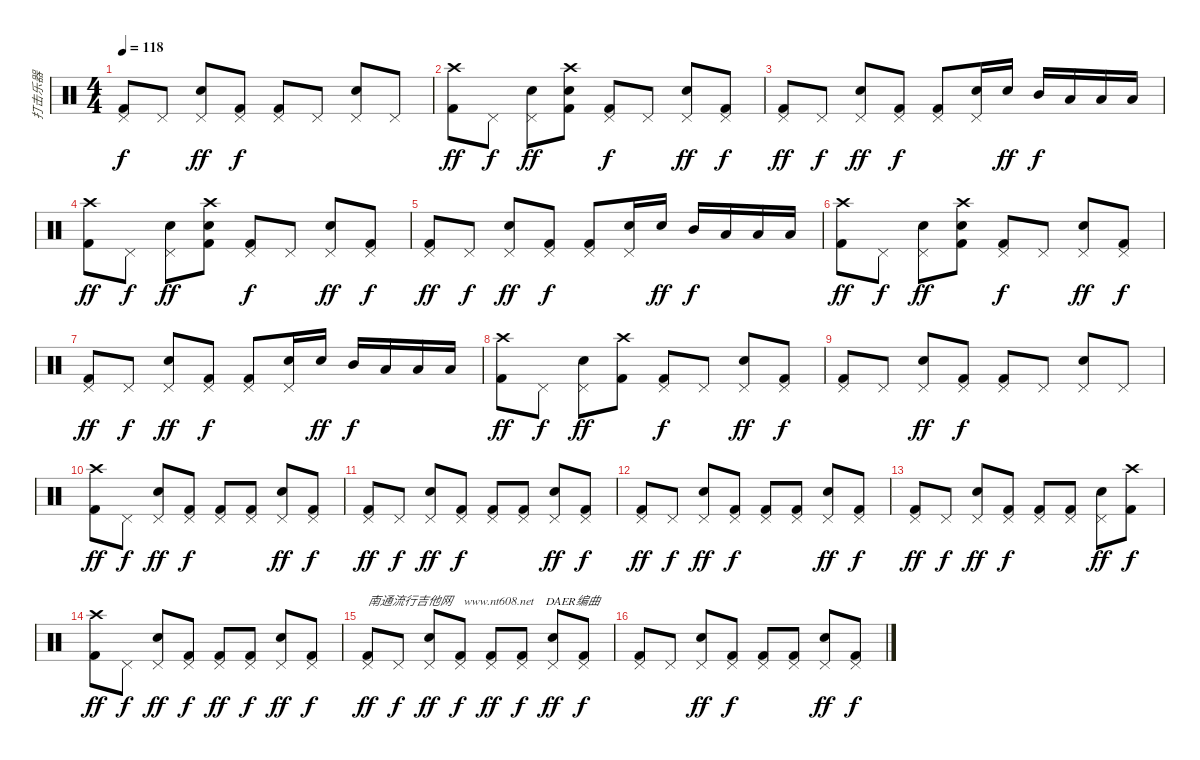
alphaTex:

\track ("打击乐器" "打击乐器") {instrument percussion}
\staff {score}
\articulation defaults
\ts (4 4)
\tempo 118
\clef neutral
\ks c
("Pedal Hi-Hat (hit)" "Kick (hit) 2").8{dy f} "Pedal Hi-Hat (hit)".8 ("Pedal Hi-Hat (hit)" "Snare (hit) 2").8{dy ff} ("Pedal Hi-Hat (hit)" "Kick (hit) 2").8{dy f} ("Pedal Hi-Hat (hit)" "Kick (hit) 2").8 "Pedal Hi-Hat (hit)".8 ("Pedal Hi-Hat (hit)" "Snare (hit) 2").8 "Pedal Hi-Hat (hit)".8 |
("Crash high (hit)" "Kick (hit) 2").8{dy ff} "Pedal Hi-Hat (hit)".8{dy f} ("Pedal Hi-Hat (hit)" "Snare (hit) 2").8{dy ff} ("Crash high (hit)" "Snare (hit) 2" "Kick (hit) 2").8 ("Pedal Hi-Hat (hit)" "Kick (hit) 2").8{dy f} "Pedal Hi-Hat (hit)".8 ("Pedal Hi-Hat (hit)" "Snare (hit) 2").8{dy ff} ("Pedal Hi-Hat (hit)" "Kick (hit) 2").8{dy f} |
("Pedal Hi-Hat (hit)" "Kick (hit) 2").8{dy ff} "Pedal Hi-Hat (hit)".8{dy f} ("Pedal Hi-Hat (hit)" "Snare (hit) 2").8{dy ff} ("Pedal Hi-Hat (hit)" "Kick (hit) 2").8{dy f} ("Pedal Hi-Hat (hit)" "Kick (hit) 2").8 ("Pedal Hi-Hat (hit)" "Snare (hit) 2").16 "Snare (hit) 2".16{dy ff} "Mid Tom (hit)".16{dy f} "Low Tom (hit)".16 "Low Floor Tom (hit)".16 "Low Floor Tom (hit)".16 |
("Crash high (hit)" "Kick (hit) 2").8{dy ff} "Pedal Hi-Hat (hit)".8{dy f} ("Pedal Hi-Hat (hit)" "Snare (hit) 2").8{dy ff} ("Crash high (hit)" "Snare (hit) 2" "Kick (hit) 2").8 ("Pedal Hi-Hat (hit)" "Kick (hit) 2").8{dy f} "Pedal Hi-Hat (hit)".8 ("Pedal Hi-Hat (hit)" "Snare (hit) 2").8{dy ff} ("Pedal Hi-Hat (hit)" "Kick (hit) 2").8{dy f} |
("Pedal Hi-Hat (hit)" "Kick (hit) 2").8{dy ff} "Pedal Hi-Hat (hit)".8{dy f} ("Pedal Hi-Hat (hit)" "Snare (hit) 2").8{dy ff} ("Pedal Hi-Hat (hit)" "Kick (hit) 2").8{dy f} ("Pedal Hi-Hat (hit)" "Kick (hit) 2").8 ("Pedal Hi-Hat (hit)" "Snare (hit) 2").16 "Snare (hit) 2".16{dy ff} "Mid Tom (hit)".16{dy f} "Low Tom (hit)".16 "Low Floor Tom (hit)".16 "Low Floor Tom (hit)".16 |
("Crash high (hit)" "Kick (hit) 2").8{dy ff} "Pedal Hi-Hat (hit)".8{dy f} ("Pedal Hi-Hat (hit)" "Snare (hit) 2").8{dy ff} ("Crash high (hit)" "Snare (hit) 2" "Kick (hit) 2").8 ("Pedal Hi-Hat (hit)" "Kick (hit) 2").8{dy f} "Pedal Hi-Hat (hit)".8 ("Pedal Hi-Hat (hit)" "Snare (hit) 2").8{dy ff} ("Pedal Hi-Hat (hit)" "Kick (hit) 2").8{dy f} |
("Pedal Hi-Hat (hit)" "Kick (hit) 2").8{dy ff} "Pedal Hi-Hat (hit)".8{dy f} ("Pedal Hi-Hat (hit)" "Snare (hit) 2").8{dy ff} ("Pedal Hi-Hat (hit)" "Kick (hit) 2").8{dy f} ("Pedal Hi-Hat (hit)" "Kick (hit) 2").8 ("Pedal Hi-Hat (hit)" "Snare (hit) 2").16 "Snare (hit) 2".16{dy ff} "Mid Tom (hit)".16{dy f} "Low Tom (hit)".16 "Low Floor Tom (hit)".16 "Low Floor Tom (hit)".16 |
("Crash high (hit)" "Kick (hit) 2").8{dy ff} "Pedal Hi-Hat (hit)".8{dy f} ("Pedal Hi-Hat (hit)" "Snare (hit) 2").8{dy ff} ("Crash high (hit)" "Kick (hit) 2").8 ("Pedal Hi-Hat (hit)" "Kick (hit) 2").8{dy f} "Pedal Hi-Hat (hit)".8 ("Pedal Hi-Hat (hit)" "Snare (hit) 2").8{dy ff} ("Pedal Hi-Hat (hit)" "Kick (hit) 2").8{dy f} |
("Pedal Hi-Hat (hit)" "Kick (hit) 2").8 "Pedal Hi-Hat (hit)".8 ("Pedal Hi-Hat (hit)" "Snare (hit) 2").8{dy ff} ("Pedal Hi-Hat (hit)" "Kick (hit) 2").8{dy f} ("Pedal Hi-Hat (hit)" "Kick (hit) 2").8 "Pedal Hi-Hat (hit)".8 ("Pedal Hi-Hat (hit)" "Snare (hit) 2").8 "Pedal Hi-Hat (hit)".8 |
("Crash high (hit)" "Kick (hit) 2").8{dy ff} "Pedal Hi-Hat (hit)".8{dy f} ("Pedal Hi-Hat (hit)" "Snare (hit) 2").8{dy ff} ("Pedal Hi-Hat (hit)" "Kick (hit) 2").8{dy f} ("Pedal Hi-Hat (hit)" "Kick (hit) 2").8 ("Pedal Hi-Hat (hit)" "Kick (hit) 2").8 ("Pedal Hi-Hat (hit)" "Snare (hit) 2").8{dy ff} ("Pedal Hi-Hat (hit)" "Kick (hit) 2").8{dy f} |
("Pedal Hi-Hat (hit)" "Kick (hit) 2").8{dy ff} "Pedal Hi-Hat (hit)".8{dy f} ("Pedal Hi-Hat (hit)" "Snare (hit) 2").8{dy ff} ("Pedal Hi-Hat (hit)" "Kick (hit) 2").8{dy f} ("Pedal Hi-Hat (hit)" "Kick (hit) 2").8 ("Pedal Hi-Hat (hit)" "Kick (hit) 2").8 ("Pedal Hi-Hat (hit)" "Snare (hit) 2").8{dy ff} ("Pedal Hi-Hat (hit)" "Kick (hit) 2").8{dy f} |
("Pedal Hi-Hat (hit)" "Kick (hit) 2").8{dy ff} "Pedal Hi-Hat (hit)".8{dy f} ("Pedal Hi-Hat (hit)" "Snare (hit) 2").8{dy ff} ("Pedal Hi-Hat (hit)" "Kick (hit) 2").8{dy f} ("Pedal Hi-Hat (hit)" "Kick (hit) 2").8 ("Pedal Hi-Hat (hit)" "Kick (hit) 2").8 ("Pedal Hi-Hat (hit)" "Snare (hit) 2").8{dy ff} ("Pedal Hi-Hat (hit)" "Kick (hit) 2").8{dy f} |
("Pedal Hi-Hat (hit)" "Kick (hit) 2").8{dy ff} "Pedal Hi-Hat (hit)".8{dy f} ("Pedal Hi-Hat (hit)" "Snare (hit) 2").8{dy ff} ("Pedal Hi-Hat (hit)" "Kick (hit) 2").8{dy f} ("Pedal Hi-Hat (hit)" "Kick (hit) 2").8 ("Pedal Hi-Hat (hit)" "Kick (hit) 2").8 ("Pedal Hi-Hat (hit)" "Snare (hit) 2").8{dy ff} ("Crash high (hit)" "Kick (hit) 2").8{dy f} |
("Crash high (hit)" "Kick (hit) 2").8{dy ff} "Pedal Hi-Hat (hit)".8{dy f} ("Pedal Hi-Hat (hit)" "Snare (hit) 2").8{dy ff} ("Pedal Hi-Hat (hit)" "Kick (hit) 2").8{dy f} ("Pedal Hi-Hat (hit)" "Kick (hit) 2").8{dy ff} ("Pedal Hi-Hat (hit)" "Kick (hit) 2").8{dy f} ("Pedal Hi-Hat (hit)" "Snare (hit) 2").8{dy ff} ("Pedal Hi-Hat (hit)" "Kick (hit) 2").8{dy f} |
("Pedal Hi-Hat (hit)" "Kick (hit) 2").8{txt "南通流行吉他网    www.nt608.net    DAER编曲" dy ff} "Pedal Hi-Hat (hit)".8{dy f} ("Pedal Hi-Hat (hit)" "Snare (hit) 2").8{dy ff} ("Pedal Hi-Hat (hit)" "Kick (hit) 2").8{dy f} ("Pedal Hi-Hat (hit)" "Kick (hit) 2").8{dy ff} ("Pedal Hi-Hat (hit)" "Kick (hit) 2").8{dy f} ("Pedal Hi-Hat (hit)" "Snare (hit) 2").8{dy ff} ("Pedal Hi-Hat (hit)" "Kick (hit) 2").8{dy f} |
("Pedal Hi-Hat (hit)" "Kick (hit) 2").8 "Pedal Hi-Hat (hit)".8 ("Pedal Hi-Hat (hit)" "Snare (hit) 2").8{dy ff} ("Pedal Hi-Hat (hit)" "Kick (hit) 2").8{dy f} ("Pedal Hi-Hat (hit)" "Kick (hit) 2").8 ("Pedal Hi-Hat (hit)" "Kick (hit) 2").8 ("Pedal Hi-Hat (hit)" "Snare (hit) 2").8{dy ff} ("Pedal Hi-Hat (hit)" "Kick (hit) 2").8{dy f}
